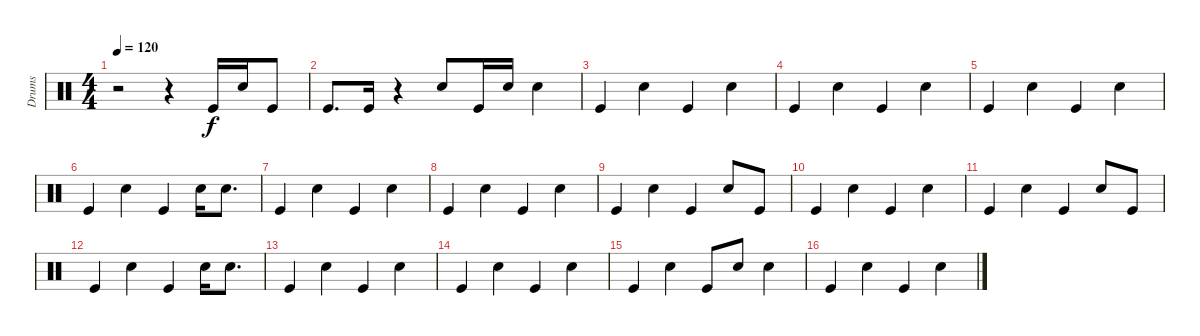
\track ("Drums" "Drums") {instrument percussion}
\staff {score}
\articulation defaults
\ts (4 4)
\tempo 120
\clef neutral
\ks c
r.2{dy f} r.4 "Kick (hit)".16 "Snare (hit) 2".16 "Kick (hit)".8 |
"Kick (hit)".8{d} "Kick (hit)".16 r.4 "Snare (hit) 2".8 "Kick (hit)".16 "Snare (hit) 2".16 "Snare (hit) 2".4 |
"Kick (hit)".4 "Snare (hit) 2".4 "Kick (hit)".4 "Snare (hit) 2".4 |
"Kick (hit)".4 "Snare (hit) 2".4 "Kick (hit)".4 "Snare (hit) 2".4 |
"Kick (hit)".4 "Snare (hit) 2".4 "Kick (hit)".4 "Snare (hit) 2".4 |
"Kick (hit)".4 "Snare (hit) 2".4 "Kick (hit)".4 "Snare (hit) 2".16 "Snare (hit) 2".8{d} |
"Kick (hit)".4 "Snare (hit) 2".4 "Kick (hit)".4 "Snare (hit) 2".4 |
"Kick (hit)".4 "Snare (hit) 2".4 "Kick (hit)".4 "Snare (hit) 2".4 |
"Kick (hit)".4 "Snare (hit) 2".4 "Kick (hit)".4 "Snare (hit) 2".8 "Kick (hit)".8 |
"Kick (hit)".4 "Snare (hit) 2".4 "Kick (hit)".4 "Snare (hit) 2".4 |
"Kick (hit)".4 "Snare (hit) 2".4 "Kick (hit)".4 "Snare (hit) 2".8 "Kick (hit)".8 |
"Kick (hit)".4 "Snare (hit) 2".4 "Kick (hit)".4 "Snare (hit) 2".16 "Snare (hit) 2".8{d} |
"Kick (hit)".4 "Snare (hit) 2".4 "Kick (hit)".4 "Snare (hit) 2".4 |
"Kick (hit)".4 "Snare (hit) 2".4 "Kick (hit)".4 "Snare (hit) 2".4 |
"Kick (hit)".4 "Snare (hit) 2".4 "Kick (hit)".8 "Snare (hit) 2".8 "Snare (hit) 2".4 |
"Kick (hit)".4 "Snare (hit) 2".4 "Kick (hit)".4 "Snare (hit) 2".4
